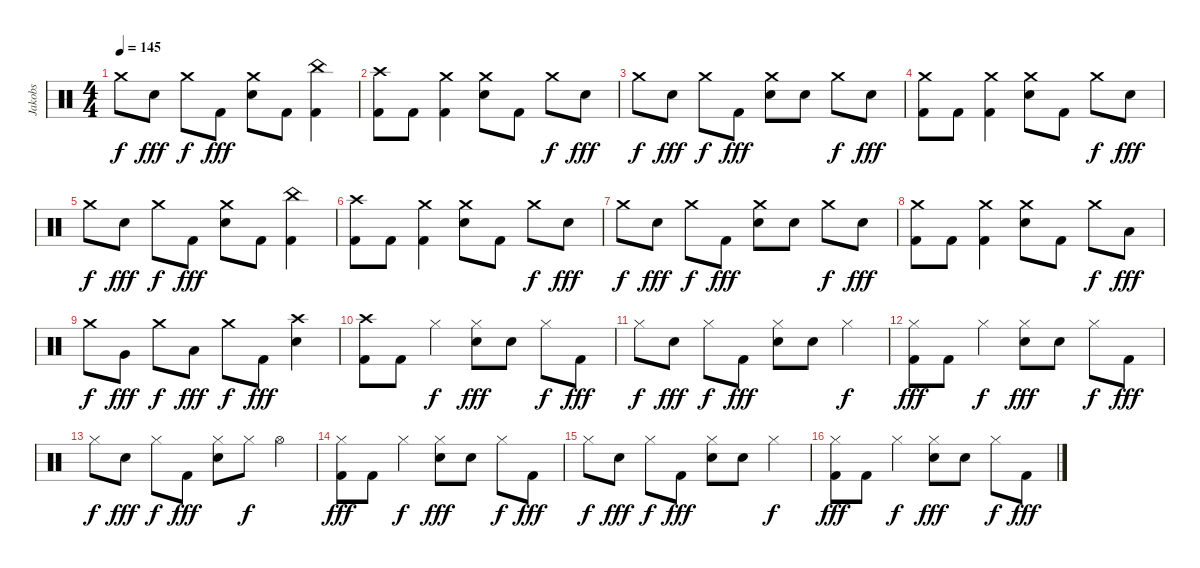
\track ("Jakobs" "Jakobs") {instrument percussion}
\staff {score}
\articulation defaults
\ts (4 4)
\tempo 145
\clef neutral
\ks c "Crash medium (hit)".8{dy f} "Snare (hit) 2".8{dy fff} "Crash medium (hit)".8{dy f} "Kick (hit) 2".8{dy fff}
("Crash medium (hit)" "Snare (hit) 2").8 "Kick (hit) 2".8 ("China (hit)" "Kick (hit) 2").4 |
("Crash high (hit)" "Kick (hit) 2").8 "Kick (hit) 2".8 ("Crash medium (hit)" "Kick (hit) 2").4 ("Crash medium (hit)" "Snare (hit) 2").8 "Kick (hit) 2".8 "Crash medium (hit)".8{dy f} "Snare (hit) 2".8{dy fff} |
"Crash medium (hit)".8{dy f} "Snare (hit) 2".8{dy fff} "Crash medium (hit)".8{dy f} "Kick (hit) 2".8{dy fff} ("Crash medium (hit)" "Snare (hit) 2").8 "Snare (hit) 2".8 "Crash medium (hit)".8{dy f} "Snare (hit) 2".8{dy fff} |
("Crash medium (hit)" "Kick (hit) 2").8 "Kick (hit) 2".8 ("Crash medium (hit)" "Kick (hit) 2").4 ("Crash medium (hit)" "Snare (hit) 2").8 "Kick (hit) 2".8 "Crash medium (hit)".8{dy f} "Snare (hit) 2".8{dy fff} |
"Crash medium (hit)".8{dy f} "Snare (hit) 2".8{dy fff} "Crash medium (hit)".8{dy f} "Kick (hit) 2".8{dy fff} ("Crash medium (hit)" "Snare (hit) 2").8 "Kick (hit) 2".8 ("China (hit)" "Kick (hit) 2").4 |
("Crash high (hit)" "Kick (hit) 2").8 "Kick (hit) 2".8 ("Crash medium (hit)" "Kick (hit) 2").4 ("Crash medium (hit)" "Snare (hit) 2").8 "Kick (hit) 2".8 "Crash medium (hit)".8{dy f} "Snare (hit) 2".8{dy fff} |
"Crash medium (hit)".8{dy f} "Snare (hit) 2".8{dy fff} "Crash medium (hit)".8{dy f} "Kick (hit) 2".8{dy fff} ("Crash medium (hit)" "Snare (hit) 2").8 "Snare (hit) 2".8 "Crash medium (hit)".8{dy f} "Snare (hit) 2".8{dy fff} |
("Crash medium (hit)" "Kick (hit) 2").8 "Kick (hit) 2".8 ("Crash medium (hit)" "Kick (hit) 2").4 ("Crash medium (hit)" "Snare (hit) 2").8 "Kick (hit) 2".8 "Crash medium (hit)".8{dy f} "Low Tom (hit)".8{dy fff} |
"Crash medium (hit)".8{dy f} "Very Low Tom (hit)".8{dy fff} "Crash medium (hit)".8{dy f} "Low Floor Tom (hit)".8{dy fff} "Crash medium (hit)".8{dy f} "Kick (hit) 2".8{dy fff} ("Crash high (hit)" "Snare (hit) 2").4 |
("Crash high (hit)" "Kick (hit) 2").8 "Kick (hit) 2".8 "Hi-Hat (closed)".4{dy f} ("Hi-Hat (closed)" "Snare (hit) 2").8{dy fff} "Snare (hit) 2".8 "Hi-Hat (closed)".8{dy f} "Kick (hit) 2".8{dy fff} |
"Hi-Hat (closed)".8{dy f} "Snare (hit) 2".8{dy fff} "Hi-Hat (closed)".8{dy f} "Kick (hit) 2".8{dy fff} ("Hi-Hat (closed)" "Snare (hit) 2").8 "Snare (hit) 2".8 "Hi-Hat (closed)".4{dy f} |
("Hi-Hat (closed)" "Kick (hit) 2").8{dy fff} "Kick (hit) 2".8 "Hi-Hat (closed)".4{dy f} ("Hi-Hat (closed)" "Snare (hit) 2").8{dy fff} "Snare (hit) 2".8 "Hi-Hat (closed)".8{dy f} "Kick (hit) 2".8{dy fff} |
"Hi-Hat (closed)".8{dy f} "Snare (hit) 2".8{dy fff} "Hi-Hat (closed)".8{dy f} "Kick (hit) 2".8{dy fff} ("Hi-Hat (closed)" "Snare (hit) 2").8 "Hi-Hat (closed)".8{dy f} "Hi-Hat (open)".4 |
("Hi-Hat (closed)" "Kick (hit) 2").8{dy fff} "Kick (hit) 2".8 "Hi-Hat (closed)".4{dy f} ("Hi-Hat (closed)" "Snare (hit) 2").8{dy fff} "Snare (hit) 2".8 "Hi-Hat (closed)".8{dy f} "Kick (hit) 2".8{dy fff} |
"Hi-Hat (closed)".8{dy f} "Snare (hit) 2".8{dy fff} "Hi-Hat (closed)".8{dy f} "Kick (hit) 2".8{dy fff} ("Hi-Hat (closed)" "Snare (hit) 2").8 "Snare (hit) 2".8 "Hi-Hat (closed)".4{dy f} |
("Hi-Hat (closed)" "Kick (hit) 2").8{dy fff} "Kick (hit) 2".8 "Hi-Hat (closed)".4{dy f} ("Hi-Hat (closed)" "Snare (hit) 2").8{dy fff} "Snare (hit) 2".8 "Hi-Hat (closed)".8{dy f} "Kick (hit) 2".8{dy fff}
